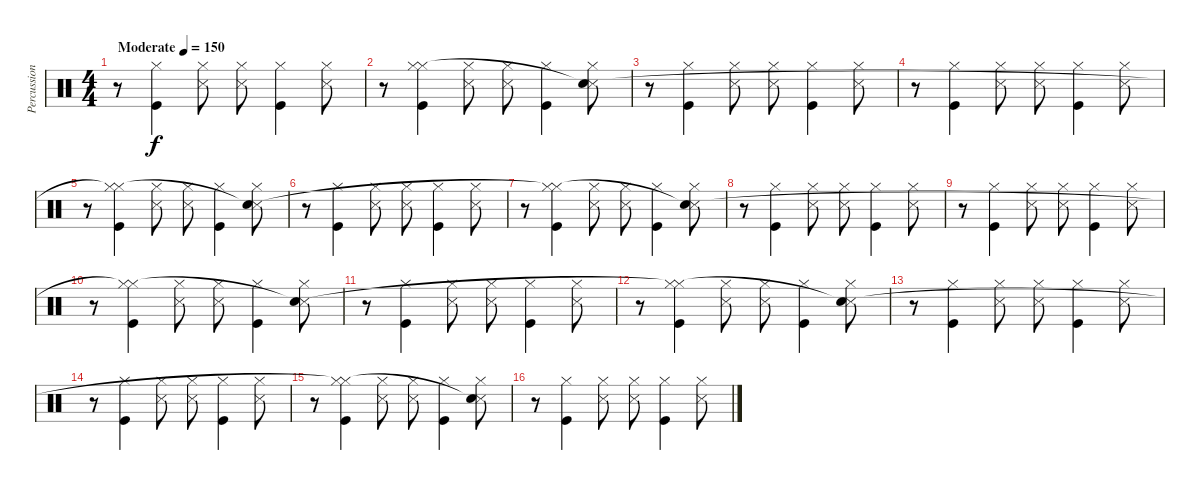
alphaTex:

\track ("Percussion" "Percussion") {instrument percussion}
\staff {score}
\articulation defaults
\ts (4 4)
\tempo (150 "Moderate")
\clef neutral
\ks c
r.8{dy f} ("Kick (hit)" "Hi-Hat (closed)").4 ("Snare (side stick) 3" "Hi-Hat (closed)").8 ("Snare (side stick) 3" "Hi-Hat (closed)").8 ("Kick (hit)" "Hi-Hat (closed)").4 ("Snare (side stick) 3" "Hi-Hat (closed)").8 |
r.8 ("Kick (hit)" "Hi-Hat (closed)" "Hi-Hat (closed)").4 ("Snare (side stick) 3" "Hi-Hat (closed)").8 ("Snare (side stick) 3" "Hi-Hat (closed)").8 ("Kick (hit)" "Hi-Hat (closed)").4 ("Snare (side stick) 3" "Hi-Hat (closed)" "Snare (hit)"{t}).8 |
r.8 ("Kick (hit)" "Hi-Hat (closed)").4 ("Snare (side stick) 3" "Hi-Hat (closed)").8 ("Snare (side stick) 3" "Hi-Hat (closed)").8 ("Kick (hit)" "Hi-Hat (closed)").4 ("Snare (side stick) 3" "Hi-Hat (closed)").8 |
r.8 ("Kick (hit)" "Hi-Hat (closed)").4 ("Snare (side stick) 3" "Hi-Hat (closed)").8 ("Snare (side stick) 3" "Hi-Hat (closed)").8 ("Kick (hit)" "Hi-Hat (closed)").4 ("Snare (side stick) 3" "Hi-Hat (closed)").8 |
r.8 ("Kick (hit)" "Hi-Hat (closed)" "Hi-Hat (closed)"{t}).4 ("Snare (side stick) 3" "Hi-Hat (closed)").8 ("Snare (side stick) 3" "Hi-Hat (closed)").8 ("Kick (hit)" "Hi-Hat (closed)").4 ("Snare (side stick) 3" "Hi-Hat (closed)" "Snare (hit)"{t}).8 |
r.8 ("Kick (hit)" "Hi-Hat (closed)").4 ("Snare (side stick) 3" "Hi-Hat (closed)").8 ("Snare (side stick) 3" "Hi-Hat (closed)").8 ("Kick (hit)" "Hi-Hat (closed)").4 ("Snare (side stick) 3" "Hi-Hat (closed)").8 |
r.8 ("Kick (hit)" "Hi-Hat (closed)" "Hi-Hat (closed)"{t}).4 ("Snare (side stick) 3" "Hi-Hat (closed)").8 ("Snare (side stick) 3" "Hi-Hat (closed)").8 ("Kick (hit)" "Hi-Hat (closed)").4 ("Snare (side stick) 3" "Hi-Hat (closed)" "Snare (hit)"{t}).8 |
r.8 ("Kick (hit)" "Hi-Hat (closed)").4 ("Snare (side stick) 3" "Hi-Hat (closed)").8 ("Snare (side stick) 3" "Hi-Hat (closed)").8 ("Kick (hit)" "Hi-Hat (closed)").4 ("Snare (side stick) 3" "Hi-Hat (closed)").8 |
r.8 ("Kick (hit)" "Hi-Hat (closed)").4 ("Snare (side stick) 3" "Hi-Hat (closed)").8 ("Snare (side stick) 3" "Hi-Hat (closed)").8 ("Kick (hit)" "Hi-Hat (closed)").4 ("Snare (side stick) 3" "Hi-Hat (closed)").8 |
r.8 ("Kick (hit)" "Hi-Hat (closed)" "Hi-Hat (closed)"{t}).4 ("Snare (side stick) 3" "Hi-Hat (closed)").8 ("Snare (side stick) 3" "Hi-Hat (closed)").8 ("Kick (hit)" "Hi-Hat (closed)").4 ("Snare (side stick) 3" "Hi-Hat (closed)" "Snare (hit)"{t}).8 |
r.8 ("Kick (hit)" "Hi-Hat (closed)").4 ("Snare (side stick) 3" "Hi-Hat (closed)").8 ("Snare (side stick) 3" "Hi-Hat (closed)").8 ("Kick (hit)" "Hi-Hat (closed)").4 ("Snare (side stick) 3" "Hi-Hat (closed)").8 |
r.8 ("Kick (hit)" "Hi-Hat (closed)" "Hi-Hat (closed)"{t}).4 ("Snare (side stick) 3" "Hi-Hat (closed)").8 ("Snare (side stick) 3" "Hi-Hat (closed)").8 ("Kick (hit)" "Hi-Hat (closed)").4 ("Snare (side stick) 3" "Hi-Hat (closed)" "Snare (hit)"{t}).8 |
r.8 ("Kick (hit)" "Hi-Hat (closed)").4 ("Snare (side stick) 3" "Hi-Hat (closed)").8 ("Snare (side stick) 3" "Hi-Hat (closed)").8 ("Kick (hit)" "Hi-Hat (closed)").4 ("Snare (side stick) 3" "Hi-Hat (closed)").8 |
r.8 ("Kick (hit)" "Hi-Hat (closed)").4 ("Snare (side stick) 3" "Hi-Hat (closed)").8 ("Snare (side stick) 3" "Hi-Hat (closed)").8 ("Kick (hit)" "Hi-Hat (closed)").4 ("Snare (side stick) 3" "Hi-Hat (closed)").8 |
r.8 ("Kick (hit)" "Hi-Hat (closed)" "Hi-Hat (closed)"{t}).4 ("Snare (side stick) 3" "Hi-Hat (closed)").8 ("Snare (side stick) 3" "Hi-Hat (closed)").8 ("Kick (hit)" "Hi-Hat (closed)").4 ("Snare (side stick) 3" "Hi-Hat (closed)" "Snare (hit)"{t}).8 |
r.8 ("Kick (hit)" "Hi-Hat (closed)").4 ("Snare (side stick) 3" "Hi-Hat (closed)").8 ("Snare (side stick) 3" "Hi-Hat (closed)").8 ("Kick (hit)" "Hi-Hat (closed)").4 ("Snare (side stick) 3" "Hi-Hat (closed)").8
